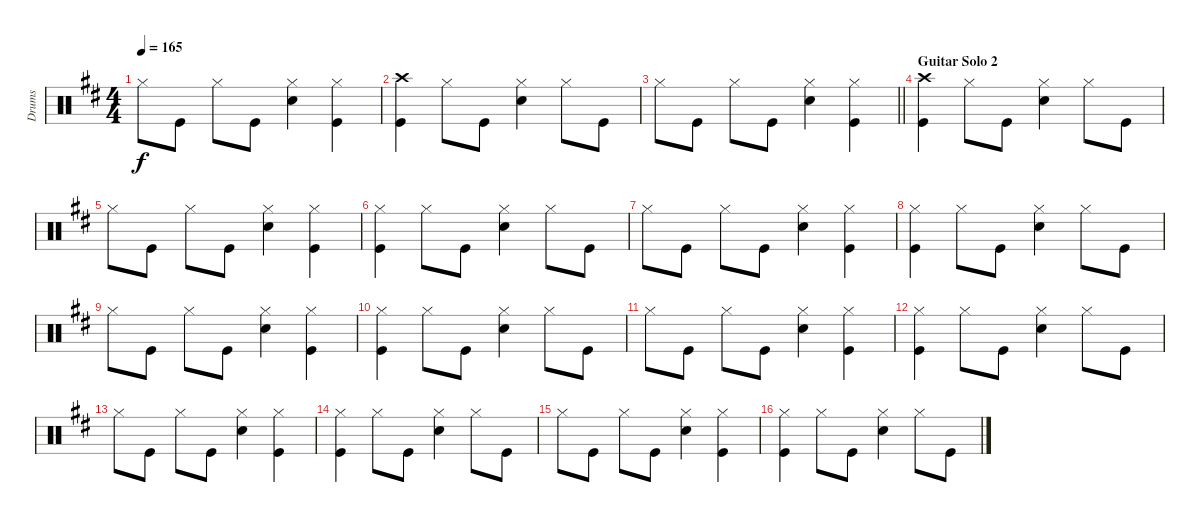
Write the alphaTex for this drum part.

\track ("Drums" "Drums") {instrument percussion}
\staff {score}
\articulation defaults
\ts (4 4)
\tempo 165
\clef neutral
\ks d "Hi-Hat (closed)".8{dy f} "Kick (hit)".8 "Hi-Hat (closed)".8 "Kick (hit)".8
("Hi-Hat (closed)" "Snare (hit) 2").4 ("Hi-Hat (closed)" "Kick (hit)").4 |
("Crash high (hit)" "Kick (hit)").4 "Hi-Hat (closed)".8 "Kick (hit)".8 ("Hi-Hat (closed)" "Snare (hit) 2").4 "Hi-Hat (closed)".8 "Kick (hit)".8 |
\barLineRight lightlight "Hi-Hat (closed)".8 "Kick (hit)".8 "Hi-Hat (closed)".8 "Kick (hit)".8
("Hi-Hat (closed)" "Snare (hit) 2").4 ("Hi-Hat (closed)" "Kick (hit)").4 |
\section ("" "Guitar Solo 2")
("Crash high (hit)" "Kick (hit)").4 "Hi-Hat (closed)".8 "Kick (hit)".8 ("Hi-Hat (closed)" "Snare (hit) 2").4 "Hi-Hat (closed)".8 "Kick (hit)".8 |
"Hi-Hat (closed)".8 "Kick (hit)".8 "Hi-Hat (closed)".8 "Kick (hit)".8 ("Hi-Hat (closed)" "Snare (hit) 2").4 ("Hi-Hat (closed)" "Kick (hit)").4 |
("Hi-Hat (closed)" "Kick (hit)").4 "Hi-Hat (closed)".8 "Kick (hit)".8 ("Hi-Hat (closed)" "Snare (hit) 2").4 "Hi-Hat (closed)".8 "Kick (hit)".8 |
"Hi-Hat (closed)".8 "Kick (hit)".8 "Hi-Hat (closed)".8 "Kick (hit)".8 ("Hi-Hat (closed)" "Snare (hit) 2").4 ("Hi-Hat (closed)" "Kick (hit)").4 |
("Hi-Hat (closed)" "Kick (hit)").4 "Hi-Hat (closed)".8 "Kick (hit)".8 ("Hi-Hat (closed)" "Snare (hit) 2").4 "Hi-Hat (closed)".8 "Kick (hit)".8 |
"Hi-Hat (closed)".8 "Kick (hit)".8 "Hi-Hat (closed)".8 "Kick (hit)".8 ("Hi-Hat (closed)" "Snare (hit) 2").4 ("Hi-Hat (closed)" "Kick (hit)").4 |
("Hi-Hat (closed)" "Kick (hit)").4 "Hi-Hat (closed)".8 "Kick (hit)".8 ("Hi-Hat (closed)" "Snare (hit) 2").4 "Hi-Hat (closed)".8 "Kick (hit)".8 |
"Hi-Hat (closed)".8 "Kick (hit)".8 "Hi-Hat (closed)".8 "Kick (hit)".8 ("Hi-Hat (closed)" "Snare (hit) 2").4 ("Hi-Hat (closed)" "Kick (hit)").4 |
("Hi-Hat (closed)" "Kick (hit)").4 "Hi-Hat (closed)".8 "Kick (hit)".8 ("Hi-Hat (closed)" "Snare (hit) 2").4 "Hi-Hat (closed)".8 "Kick (hit)".8 |
"Hi-Hat (closed)".8 "Kick (hit)".8 "Hi-Hat (closed)".8 "Kick (hit)".8 ("Hi-Hat (closed)" "Snare (hit) 2").4 ("Hi-Hat (closed)" "Kick (hit)").4 |
("Hi-Hat (closed)" "Kick (hit)").4 "Hi-Hat (closed)".8 "Kick (hit)".8 ("Hi-Hat (closed)" "Snare (hit) 2").4 "Hi-Hat (closed)".8 "Kick (hit)".8 |
"Hi-Hat (closed)".8 "Kick (hit)".8 "Hi-Hat (closed)".8 "Kick (hit)".8 ("Hi-Hat (closed)" "Snare (hit) 2").4 ("Hi-Hat (closed)" "Kick (hit)").4 |
("Hi-Hat (closed)" "Kick (hit)").4 "Hi-Hat (closed)".8 "Kick (hit)".8 ("Hi-Hat (closed)" "Snare (hit) 2").4 "Hi-Hat (closed)".8 "Kick (hit)".8
